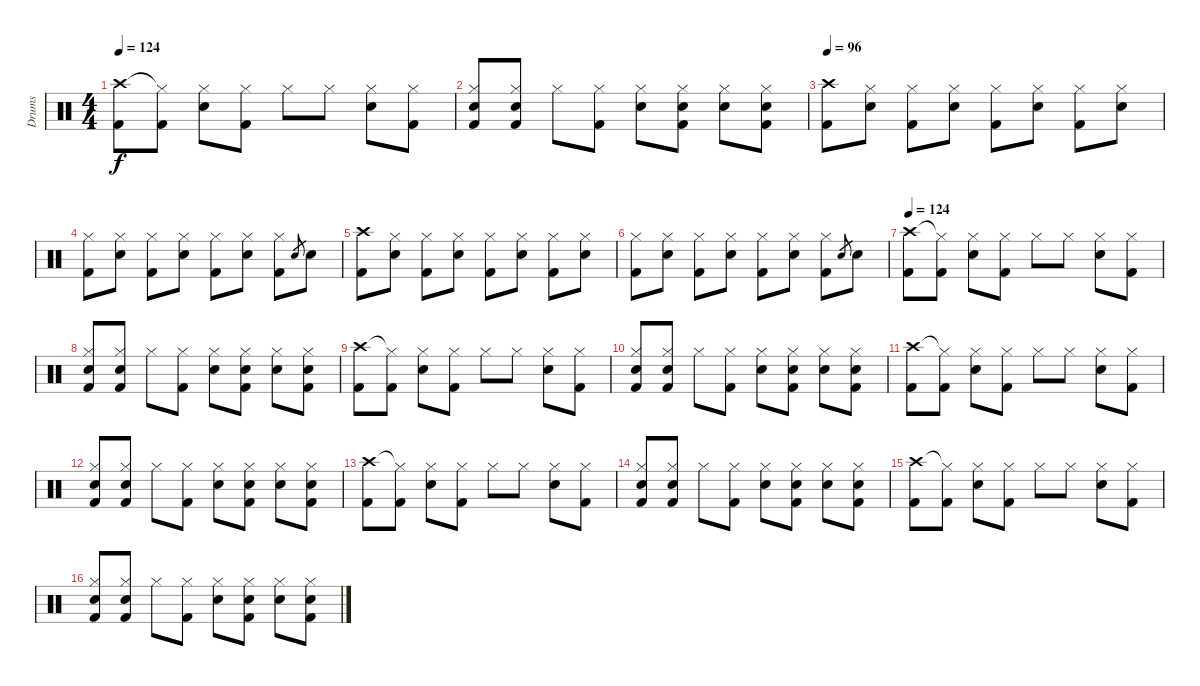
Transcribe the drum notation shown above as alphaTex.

\track ("Drums" "Drums") {instrument percussion}
\staff {score}
\articulation defaults
\ts (4 4)
\tempo 124
\clef neutral
\ks c
("Crash high (hit)" "Kick (hit) 2").8{dy f} ("Hi-Hat (closed)"{t} "Kick (hit) 2").8 ("Hi-Hat (closed)" "Electric Snare (hit)").8 ("Hi-Hat (closed)" "Kick (hit) 2").8 "Hi-Hat (closed)".8 "Hi-Hat (closed)".8 ("Hi-Hat (closed)" "Electric Snare (hit)").8 ("Hi-Hat (closed)" "Kick (hit) 2").8 |
("Hi-Hat (closed)" "Electric Snare (hit)" "Kick (hit) 2").8 ("Hi-Hat (closed)" "Electric Snare (hit)" "Kick (hit) 2").8 "Hi-Hat (closed)".8 ("Hi-Hat (closed)" "Kick (hit) 2").8 ("Hi-Hat (closed)" "Electric Snare (hit)").8 ("Hi-Hat (closed)" "Electric Snare (hit)" "Kick (hit) 2").8 ("Hi-Hat (closed)" "Electric Snare (hit)").8 ("Hi-Hat (closed)" "Electric Snare (hit)" "Kick (hit) 2").8 |
\tempo 96
("Crash high (hit)" "Kick (hit) 2").8 ("Hi-Hat (closed)" "Electric Snare (hit)").8 ("Hi-Hat (closed)" "Kick (hit) 2").8 ("Hi-Hat (closed)" "Electric Snare (hit)").8 ("Hi-Hat (closed)" "Kick (hit) 2").8 ("Hi-Hat (closed)" "Electric Snare (hit)").8 ("Hi-Hat (closed)" "Kick (hit) 2").8 ("Hi-Hat (closed)" "Electric Snare (hit)").8 |
("Hi-Hat (closed)" "Kick (hit) 2").8 ("Hi-Hat (closed)" "Electric Snare (hit)").8 ("Hi-Hat (closed)" "Kick (hit) 2").8 ("Hi-Hat (closed)" "Electric Snare (hit)").8 ("Hi-Hat (closed)" "Kick (hit) 2").8 ("Hi-Hat (closed)" "Electric Snare (hit)").8 ("Hi-Hat (closed)" "Kick (hit) 2").8 "Electric Snare (hit)".8{gr} "Electric Snare (hit)".8 |
("Crash high (hit)" "Kick (hit) 2").8 ("Hi-Hat (closed)" "Electric Snare (hit)").8 ("Hi-Hat (closed)" "Kick (hit) 2").8 ("Hi-Hat (closed)" "Electric Snare (hit)").8 ("Hi-Hat (closed)" "Kick (hit) 2").8 ("Hi-Hat (closed)" "Electric Snare (hit)").8 ("Hi-Hat (closed)" "Kick (hit) 2").8 ("Hi-Hat (closed)" "Electric Snare (hit)").8 |
("Hi-Hat (closed)" "Kick (hit) 2").8 ("Hi-Hat (closed)" "Electric Snare (hit)").8 ("Hi-Hat (closed)" "Kick (hit) 2").8 ("Hi-Hat (closed)" "Electric Snare (hit)").8 ("Hi-Hat (closed)" "Kick (hit) 2").8 ("Hi-Hat (closed)" "Electric Snare (hit)").8 ("Hi-Hat (closed)" "Kick (hit) 2").8 "Electric Snare (hit)".8{gr} "Electric Snare (hit)".8 |
\tempo 124
("Crash high (hit)" "Kick (hit) 2").8 ("Hi-Hat (closed)"{t} "Kick (hit) 2").8 ("Hi-Hat (closed)" "Electric Snare (hit)").8 ("Hi-Hat (closed)" "Kick (hit) 2").8 "Hi-Hat (closed)".8 "Hi-Hat (closed)".8 ("Hi-Hat (closed)" "Electric Snare (hit)").8 ("Hi-Hat (closed)" "Kick (hit) 2").8 |
("Hi-Hat (closed)" "Electric Snare (hit)" "Kick (hit) 2").8 ("Hi-Hat (closed)" "Electric Snare (hit)" "Kick (hit) 2").8 "Hi-Hat (closed)".8 ("Hi-Hat (closed)" "Kick (hit) 2").8 ("Hi-Hat (closed)" "Electric Snare (hit)").8 ("Hi-Hat (closed)" "Electric Snare (hit)" "Kick (hit) 2").8 ("Hi-Hat (closed)" "Electric Snare (hit)").8 ("Hi-Hat (closed)" "Electric Snare (hit)" "Kick (hit) 2").8 |
("Crash high (hit)" "Kick (hit) 2").8 ("Hi-Hat (closed)"{t} "Kick (hit) 2").8 ("Hi-Hat (closed)" "Electric Snare (hit)").8 ("Hi-Hat (closed)" "Kick (hit) 2").8 "Hi-Hat (closed)".8 "Hi-Hat (closed)".8 ("Hi-Hat (closed)" "Electric Snare (hit)").8 ("Hi-Hat (closed)" "Kick (hit) 2").8 |
("Hi-Hat (closed)" "Electric Snare (hit)" "Kick (hit) 2").8 ("Hi-Hat (closed)" "Electric Snare (hit)" "Kick (hit) 2").8 "Hi-Hat (closed)".8 ("Hi-Hat (closed)" "Kick (hit) 2").8 ("Hi-Hat (closed)" "Electric Snare (hit)").8 ("Hi-Hat (closed)" "Electric Snare (hit)" "Kick (hit) 2").8 ("Hi-Hat (closed)" "Electric Snare (hit)").8 ("Hi-Hat (closed)" "Electric Snare (hit)" "Kick (hit) 2").8 |
("Crash high (hit)" "Kick (hit) 2").8 ("Hi-Hat (closed)"{t} "Kick (hit) 2").8 ("Hi-Hat (closed)" "Electric Snare (hit)").8 ("Hi-Hat (closed)" "Kick (hit) 2").8 "Hi-Hat (closed)".8 "Hi-Hat (closed)".8 ("Hi-Hat (closed)" "Electric Snare (hit)").8 ("Hi-Hat (closed)" "Kick (hit) 2").8 |
("Hi-Hat (closed)" "Electric Snare (hit)" "Kick (hit) 2").8 ("Hi-Hat (closed)" "Electric Snare (hit)" "Kick (hit) 2").8 "Hi-Hat (closed)".8 ("Hi-Hat (closed)" "Kick (hit) 2").8 ("Hi-Hat (closed)" "Electric Snare (hit)").8 ("Hi-Hat (closed)" "Electric Snare (hit)" "Kick (hit) 2").8 ("Hi-Hat (closed)" "Electric Snare (hit)").8 ("Hi-Hat (closed)" "Electric Snare (hit)" "Kick (hit) 2").8 |
("Crash high (hit)" "Kick (hit) 2").8 ("Hi-Hat (closed)"{t} "Kick (hit) 2").8 ("Hi-Hat (closed)" "Electric Snare (hit)").8 ("Hi-Hat (closed)" "Kick (hit) 2").8 "Hi-Hat (closed)".8 "Hi-Hat (closed)".8 ("Hi-Hat (closed)" "Electric Snare (hit)").8 ("Hi-Hat (closed)" "Kick (hit) 2").8 |
("Hi-Hat (closed)" "Electric Snare (hit)" "Kick (hit) 2").8 ("Hi-Hat (closed)" "Electric Snare (hit)" "Kick (hit) 2").8 "Hi-Hat (closed)".8 ("Hi-Hat (closed)" "Kick (hit) 2").8 ("Hi-Hat (closed)" "Electric Snare (hit)").8 ("Hi-Hat (closed)" "Electric Snare (hit)" "Kick (hit) 2").8 ("Hi-Hat (closed)" "Electric Snare (hit)").8 ("Hi-Hat (closed)" "Electric Snare (hit)" "Kick (hit) 2").8 |
("Crash high (hit)" "Kick (hit) 2").8 ("Hi-Hat (closed)"{t} "Kick (hit) 2").8 ("Hi-Hat (closed)" "Electric Snare (hit)").8 ("Hi-Hat (closed)" "Kick (hit) 2").8 "Hi-Hat (closed)".8 "Hi-Hat (closed)".8 ("Hi-Hat (closed)" "Electric Snare (hit)").8 ("Hi-Hat (closed)" "Kick (hit) 2").8 |
("Hi-Hat (closed)" "Electric Snare (hit)" "Kick (hit) 2").8 ("Hi-Hat (closed)" "Electric Snare (hit)" "Kick (hit) 2").8 "Hi-Hat (closed)".8 ("Hi-Hat (closed)" "Kick (hit) 2").8 ("Hi-Hat (closed)" "Electric Snare (hit)").8 ("Hi-Hat (closed)" "Electric Snare (hit)" "Kick (hit) 2").8 ("Hi-Hat (closed)" "Electric Snare (hit)").8 ("Hi-Hat (closed)" "Electric Snare (hit)" "Kick (hit) 2").8
